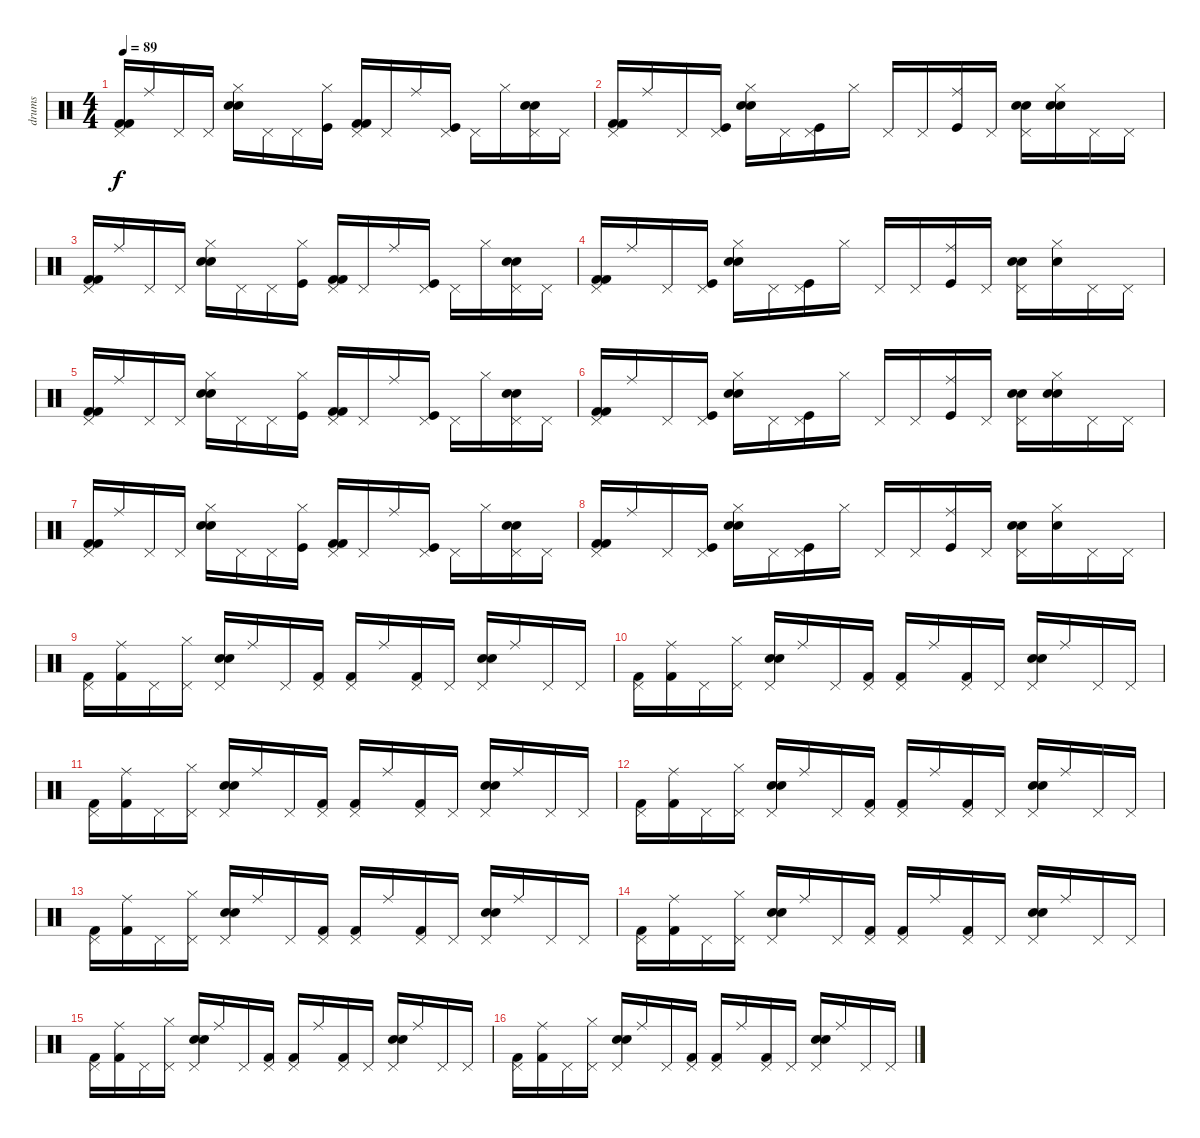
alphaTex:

\track ("drums" "drums") {instrument percussion}
\staff {score}
\articulation defaults
\ts (4 4)
\tempo 89
\clef neutral
\ks c
("Kick (hit) 2" "Kick (hit) 2" "Pedal Hi-Hat (hit)").16{dy f} "Ride (middle)".16 "Pedal Hi-Hat (hit)".16 "Pedal Hi-Hat (hit)".16 ("Hand Clap (hit)" "Hand Clap (hit)" "Hi-Hat (closed)").16 "Pedal Hi-Hat (hit)".16 "Pedal Hi-Hat (hit)".16 ("Hi-Hat (closed)" "Kick (hit)").16 ("Kick (hit) 2" "Kick (hit) 2" "Pedal Hi-Hat (hit)").16 "Pedal Hi-Hat (hit)".16 "Ride (middle)".16 ("Kick (hit)" "Pedal Hi-Hat (hit)").16 "Pedal Hi-Hat (hit)".16 "Hi-Hat (closed)".16 ("Hand Clap (hit)" "Hand Clap (hit)" "Pedal Hi-Hat (hit)").16 "Pedal Hi-Hat (hit)".16 |
("Pedal Hi-Hat (hit)" "Kick (hit) 2" "Kick (hit) 2").16 "Ride (middle)".16 "Pedal Hi-Hat (hit)".16 ("Pedal Hi-Hat (hit)" "Kick (hit)").16 ("Hi-Hat (closed)" "Hand Clap (hit)" "Hand Clap (hit)").16 "Pedal Hi-Hat (hit)".16 ("Kick (hit)" "Pedal Hi-Hat (hit)").16 "Hi-Hat (closed)".16 "Pedal Hi-Hat (hit)".16 "Pedal Hi-Hat (hit)".16 ("Ride (middle)" "Kick (hit)").16 "Pedal Hi-Hat (hit)".16 ("Hand Clap (hit)" "Hand Clap (hit)" "Pedal Hi-Hat (hit)").16 ("Hand Clap (hit)" "Hi-Hat (closed)" "Hand Clap (hit)").16 "Pedal Hi-Hat (hit)".16 "Pedal Hi-Hat (hit)".16 |
("Pedal Hi-Hat (hit)" "Kick (hit) 2" "Kick (hit) 2").16 "Ride (middle)".16 "Pedal Hi-Hat (hit)".16 "Pedal Hi-Hat (hit)".16 ("Hi-Hat (closed)" "Hand Clap (hit)" "Hand Clap (hit)").16 "Pedal Hi-Hat (hit)".16 "Pedal Hi-Hat (hit)".16 ("Hi-Hat (closed)" "Kick (hit)").16 ("Pedal Hi-Hat (hit)" "Kick (hit) 2" "Kick (hit) 2").16 "Pedal Hi-Hat (hit)".16 "Ride (middle)".16 ("Pedal Hi-Hat (hit)" "Kick (hit)").16 "Pedal Hi-Hat (hit)".16 "Hi-Hat (closed)".16 ("Pedal Hi-Hat (hit)" "Hand Clap (hit)" "Hand Clap (hit)").16 "Pedal Hi-Hat (hit)".16 |
("Pedal Hi-Hat (hit)" "Kick (hit) 2" "Kick (hit) 2").16 "Ride (middle)".16 "Pedal Hi-Hat (hit)".16 ("Pedal Hi-Hat (hit)" "Kick (hit)").16 ("Hi-Hat (closed)" "Hand Clap (hit)" "Hand Clap (hit)").16 "Pedal Hi-Hat (hit)".16 ("Pedal Hi-Hat (hit)" "Kick (hit)").16 "Hi-Hat (closed)".16 "Pedal Hi-Hat (hit)".16 "Pedal Hi-Hat (hit)".16 ("Ride (middle)" "Kick (hit)").16 "Pedal Hi-Hat (hit)".16 ("Pedal Hi-Hat (hit)" "Hand Clap (hit)" "Hand Clap (hit)").16 ("Hi-Hat (closed)" "Hand Clap (hit)").16 "Pedal Hi-Hat (hit)".16 "Pedal Hi-Hat (hit)".16 |
("Kick (hit) 2" "Kick (hit) 2" "Pedal Hi-Hat (hit)").16 "Ride (middle)".16 "Pedal Hi-Hat (hit)".16 "Pedal Hi-Hat (hit)".16 ("Hand Clap (hit)" "Hand Clap (hit)" "Hi-Hat (closed)").16 "Pedal Hi-Hat (hit)".16 "Pedal Hi-Hat (hit)".16 ("Hi-Hat (closed)" "Kick (hit)").16 ("Kick (hit) 2" "Kick (hit) 2" "Pedal Hi-Hat (hit)").16 "Pedal Hi-Hat (hit)".16 "Ride (middle)".16 ("Kick (hit)" "Pedal Hi-Hat (hit)").16 "Pedal Hi-Hat (hit)".16 "Hi-Hat (closed)".16 ("Hand Clap (hit)" "Hand Clap (hit)" "Pedal Hi-Hat (hit)").16 "Pedal Hi-Hat (hit)".16 |
("Pedal Hi-Hat (hit)" "Kick (hit) 2" "Kick (hit) 2").16 "Ride (middle)".16 "Pedal Hi-Hat (hit)".16 ("Pedal Hi-Hat (hit)" "Kick (hit)").16 ("Hi-Hat (closed)" "Hand Clap (hit)" "Hand Clap (hit)").16 "Pedal Hi-Hat (hit)".16 ("Kick (hit)" "Pedal Hi-Hat (hit)").16 "Hi-Hat (closed)".16 "Pedal Hi-Hat (hit)".16 "Pedal Hi-Hat (hit)".16 ("Ride (middle)" "Kick (hit)").16 "Pedal Hi-Hat (hit)".16 ("Hand Clap (hit)" "Hand Clap (hit)" "Pedal Hi-Hat (hit)").16 ("Hand Clap (hit)" "Hi-Hat (closed)" "Hand Clap (hit)").16 "Pedal Hi-Hat (hit)".16 "Pedal Hi-Hat (hit)".16 |
("Pedal Hi-Hat (hit)" "Kick (hit) 2" "Kick (hit) 2").16 "Ride (middle)".16 "Pedal Hi-Hat (hit)".16 "Pedal Hi-Hat (hit)".16 ("Hi-Hat (closed)" "Hand Clap (hit)" "Hand Clap (hit)").16 "Pedal Hi-Hat (hit)".16 "Pedal Hi-Hat (hit)".16 ("Hi-Hat (closed)" "Kick (hit)").16 ("Pedal Hi-Hat (hit)" "Kick (hit) 2" "Kick (hit) 2").16 "Pedal Hi-Hat (hit)".16 "Ride (middle)".16 ("Pedal Hi-Hat (hit)" "Kick (hit)").16 "Pedal Hi-Hat (hit)".16 "Hi-Hat (closed)".16 ("Pedal Hi-Hat (hit)" "Hand Clap (hit)" "Hand Clap (hit)").16 "Pedal Hi-Hat (hit)".16 |
("Pedal Hi-Hat (hit)" "Kick (hit) 2" "Kick (hit) 2").16 "Ride (middle)".16 "Pedal Hi-Hat (hit)".16 ("Pedal Hi-Hat (hit)" "Kick (hit)").16 ("Hi-Hat (closed)" "Hand Clap (hit)" "Hand Clap (hit)").16 "Pedal Hi-Hat (hit)".16 ("Pedal Hi-Hat (hit)" "Kick (hit)").16 "Hi-Hat (closed)".16 "Pedal Hi-Hat (hit)".16 "Pedal Hi-Hat (hit)".16 ("Ride (middle)" "Kick (hit)").16 "Pedal Hi-Hat (hit)".16 ("Pedal Hi-Hat (hit)" "Hand Clap (hit)" "Hand Clap (hit)").16 ("Hi-Hat (closed)" "Hand Clap (hit)").16 "Pedal Hi-Hat (hit)".16 "Pedal Hi-Hat (hit)".16 |
("Kick (hit) 2" "Pedal Hi-Hat (hit)").16 ("Kick (hit) 2" "Ride (middle)").16 "Pedal Hi-Hat (hit)".16 ("Hi-Hat (closed)" "Pedal Hi-Hat (hit)").16 ("Hand Clap (hit)" "Hand Clap (hit)" "Pedal Hi-Hat (hit)").16 "Ride (middle)".16 "Pedal Hi-Hat (hit)".16 ("Kick (hit) 2" "Pedal Hi-Hat (hit)").16 ("Kick (hit) 2" "Pedal Hi-Hat (hit)").16 "Ride (middle)".16 ("Kick (hit) 2" "Pedal Hi-Hat (hit)").16 "Pedal Hi-Hat (hit)".16 ("Hand Clap (hit)" "Hand Clap (hit)" "Pedal Hi-Hat (hit)").16 "Ride (middle)".16 "Pedal Hi-Hat (hit)".16 "Pedal Hi-Hat (hit)".16 |
("Kick (hit) 2" "Pedal Hi-Hat (hit)").16 ("Kick (hit) 2" "Ride (middle)").16 "Pedal Hi-Hat (hit)".16 ("Hi-Hat (closed)" "Pedal Hi-Hat (hit)").16 ("Hand Clap (hit)" "Hand Clap (hit)" "Pedal Hi-Hat (hit)").16 "Ride (middle)".16 "Pedal Hi-Hat (hit)".16 ("Kick (hit) 2" "Pedal Hi-Hat (hit)").16 ("Kick (hit) 2" "Pedal Hi-Hat (hit)").16 "Ride (middle)".16 ("Kick (hit) 2" "Pedal Hi-Hat (hit)").16 "Pedal Hi-Hat (hit)".16 ("Hand Clap (hit)" "Hand Clap (hit)" "Pedal Hi-Hat (hit)").16 "Ride (middle)".16 "Pedal Hi-Hat (hit)".16 "Pedal Hi-Hat (hit)".16 |
("Kick (hit) 2" "Pedal Hi-Hat (hit)").16 ("Kick (hit) 2" "Ride (middle)").16 "Pedal Hi-Hat (hit)".16 ("Hi-Hat (closed)" "Pedal Hi-Hat (hit)").16 ("Hand Clap (hit)" "Hand Clap (hit)" "Pedal Hi-Hat (hit)").16 "Ride (middle)".16 "Pedal Hi-Hat (hit)".16 ("Kick (hit) 2" "Pedal Hi-Hat (hit)").16 ("Kick (hit) 2" "Pedal Hi-Hat (hit)").16 "Ride (middle)".16 ("Kick (hit) 2" "Pedal Hi-Hat (hit)").16 "Pedal Hi-Hat (hit)".16 ("Hand Clap (hit)" "Hand Clap (hit)" "Pedal Hi-Hat (hit)").16 "Ride (middle)".16 "Pedal Hi-Hat (hit)".16 "Pedal Hi-Hat (hit)".16 |
("Kick (hit) 2" "Pedal Hi-Hat (hit)").16 ("Kick (hit) 2" "Ride (middle)").16 "Pedal Hi-Hat (hit)".16 ("Hi-Hat (closed)" "Pedal Hi-Hat (hit)").16 ("Hand Clap (hit)" "Hand Clap (hit)" "Pedal Hi-Hat (hit)").16 "Ride (middle)".16 "Pedal Hi-Hat (hit)".16 ("Kick (hit) 2" "Pedal Hi-Hat (hit)").16 ("Kick (hit) 2" "Pedal Hi-Hat (hit)").16 "Ride (middle)".16 ("Kick (hit) 2" "Pedal Hi-Hat (hit)").16 "Pedal Hi-Hat (hit)".16 ("Hand Clap (hit)" "Hand Clap (hit)" "Pedal Hi-Hat (hit)").16 "Ride (middle)".16 "Pedal Hi-Hat (hit)".16 "Pedal Hi-Hat (hit)".16 |
("Kick (hit) 2" "Pedal Hi-Hat (hit)").16 ("Kick (hit) 2" "Ride (middle)").16 "Pedal Hi-Hat (hit)".16 ("Hi-Hat (closed)" "Pedal Hi-Hat (hit)").16 ("Hand Clap (hit)" "Hand Clap (hit)" "Pedal Hi-Hat (hit)").16 "Ride (middle)".16 "Pedal Hi-Hat (hit)".16 ("Kick (hit) 2" "Pedal Hi-Hat (hit)").16 ("Kick (hit) 2" "Pedal Hi-Hat (hit)").16 "Ride (middle)".16 ("Kick (hit) 2" "Pedal Hi-Hat (hit)").16 "Pedal Hi-Hat (hit)".16 ("Hand Clap (hit)" "Hand Clap (hit)" "Pedal Hi-Hat (hit)").16 "Ride (middle)".16 "Pedal Hi-Hat (hit)".16 "Pedal Hi-Hat (hit)".16 |
("Kick (hit) 2" "Pedal Hi-Hat (hit)").16 ("Kick (hit) 2" "Ride (middle)").16 "Pedal Hi-Hat (hit)".16 ("Hi-Hat (closed)" "Pedal Hi-Hat (hit)").16 ("Hand Clap (hit)" "Hand Clap (hit)" "Pedal Hi-Hat (hit)").16 "Ride (middle)".16 "Pedal Hi-Hat (hit)".16 ("Kick (hit) 2" "Pedal Hi-Hat (hit)").16 ("Kick (hit) 2" "Pedal Hi-Hat (hit)").16 "Ride (middle)".16 ("Kick (hit) 2" "Pedal Hi-Hat (hit)").16 "Pedal Hi-Hat (hit)".16 ("Hand Clap (hit)" "Hand Clap (hit)" "Pedal Hi-Hat (hit)").16 "Ride (middle)".16 "Pedal Hi-Hat (hit)".16 "Pedal Hi-Hat (hit)".16 |
("Kick (hit) 2" "Pedal Hi-Hat (hit)").16 ("Kick (hit) 2" "Ride (middle)").16 "Pedal Hi-Hat (hit)".16 ("Hi-Hat (closed)" "Pedal Hi-Hat (hit)").16 ("Hand Clap (hit)" "Hand Clap (hit)" "Pedal Hi-Hat (hit)").16 "Ride (middle)".16 "Pedal Hi-Hat (hit)".16 ("Kick (hit) 2" "Pedal Hi-Hat (hit)").16 ("Kick (hit) 2" "Pedal Hi-Hat (hit)").16 "Ride (middle)".16 ("Kick (hit) 2" "Pedal Hi-Hat (hit)").16 "Pedal Hi-Hat (hit)".16 ("Hand Clap (hit)" "Hand Clap (hit)" "Pedal Hi-Hat (hit)").16 "Ride (middle)".16 "Pedal Hi-Hat (hit)".16 "Pedal Hi-Hat (hit)".16 |
("Kick (hit) 2" "Pedal Hi-Hat (hit)").16 ("Kick (hit) 2" "Ride (middle)").16 "Pedal Hi-Hat (hit)".16 ("Hi-Hat (closed)" "Pedal Hi-Hat (hit)").16 ("Hand Clap (hit)" "Hand Clap (hit)" "Pedal Hi-Hat (hit)").16 "Ride (middle)".16 "Pedal Hi-Hat (hit)".16 ("Kick (hit) 2" "Pedal Hi-Hat (hit)").16 ("Kick (hit) 2" "Pedal Hi-Hat (hit)").16 "Ride (middle)".16 ("Kick (hit) 2" "Pedal Hi-Hat (hit)").16 "Pedal Hi-Hat (hit)".16 ("Hand Clap (hit)" "Hand Clap (hit)" "Pedal Hi-Hat (hit)").16 "Ride (middle)".16 "Pedal Hi-Hat (hit)".16 "Pedal Hi-Hat (hit)".16
